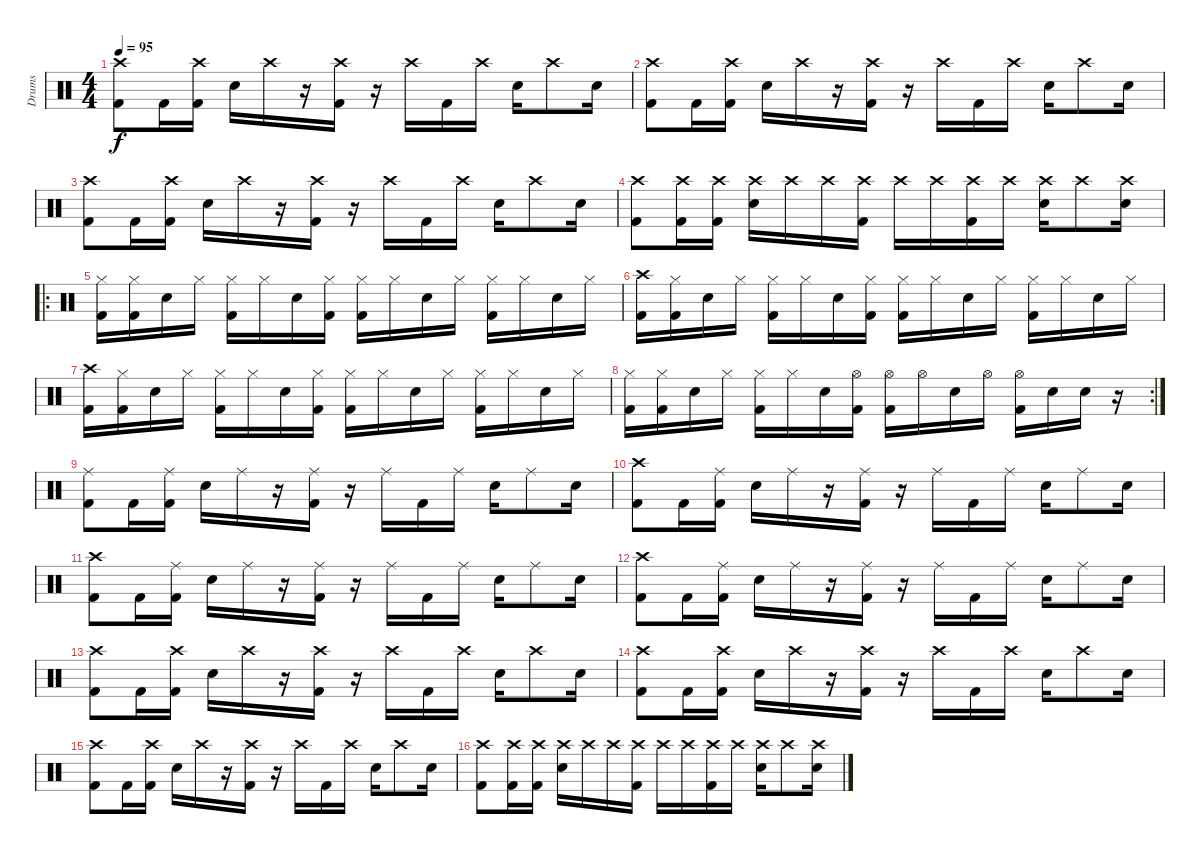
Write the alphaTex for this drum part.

\track ("Drums" "Drums") {instrument percussion}
\staff {score}
\articulation defaults
\ts (4 4)
\tempo 95
\clef neutral
\ks c
("Crash high (hit)" "Kick (hit) 2").8{dy f} "Kick (hit) 2".16 ("Crash high (hit)" "Kick (hit) 2").16 "Snare (hit) 2".16 "Crash high (hit)".16 r.16 ("Crash high (hit)" "Kick (hit) 2").16 r.16 "Crash high (hit)".16 "Kick (hit) 2".16 "Crash high (hit)".16 "Snare (hit) 2".16 "Crash high (hit)".8 "Snare (hit) 2".16 |
("Crash high (hit)" "Kick (hit) 2").8 "Kick (hit) 2".16 ("Crash high (hit)" "Kick (hit) 2").16 "Snare (hit) 2".16 "Crash high (hit)".16 r.16 ("Crash high (hit)" "Kick (hit) 2").16 r.16 "Crash high (hit)".16 "Kick (hit) 2".16 "Crash high (hit)".16 "Snare (hit) 2".16 "Crash high (hit)".8 "Snare (hit) 2".16 |
("Crash high (hit)" "Kick (hit) 2").8 "Kick (hit) 2".16 ("Crash high (hit)" "Kick (hit) 2").16 "Snare (hit) 2".16 "Crash high (hit)".16 r.16 ("Crash high (hit)" "Kick (hit) 2").16 r.16 "Crash high (hit)".16 "Kick (hit) 2".16 "Crash high (hit)".16 "Snare (hit) 2".16 "Crash high (hit)".8 "Snare (hit) 2".16 |
("Crash high (hit)" "Kick (hit) 2").8 ("Crash high (hit)" "Kick (hit) 2").16 ("Crash high (hit)" "Kick (hit) 2").16 ("Crash high (hit)" "Snare (hit) 2").16 "Crash high (hit)".16 "Crash high (hit)".16 ("Crash high (hit)" "Kick (hit) 2").16 "Crash high (hit)".16 "Crash high (hit)".16 ("Crash high (hit)" "Kick (hit) 2").16 "Crash high (hit)".16 ("Crash high (hit)" "Snare (hit) 2").16 "Crash high (hit)".8 ("Crash high (hit)" "Snare (hit) 2").16 |
\ro
("Hi-Hat (closed)" "Kick (hit) 2").16 ("Hi-Hat (closed)" "Kick (hit) 2").16 "Snare (hit) 2".16 "Hi-Hat (closed)".16 ("Hi-Hat (closed)" "Kick (hit) 2").16 "Hi-Hat (closed)".16 "Snare (hit) 2".16 ("Hi-Hat (closed)" "Kick (hit) 2").16 ("Hi-Hat (closed)" "Kick (hit) 2").16 "Hi-Hat (closed)".16 "Snare (hit) 2".16 "Hi-Hat (closed)".16 ("Hi-Hat (closed)" "Kick (hit) 2").16 "Hi-Hat (closed)".16 "Snare (hit) 2".16 "Hi-Hat (closed)".16 |
("Crash high (hit)" "Kick (hit) 2").16 ("Hi-Hat (closed)" "Kick (hit) 2").16 "Snare (hit) 2".16 "Hi-Hat (closed)".16 ("Hi-Hat (closed)" "Kick (hit) 2").16 "Hi-Hat (closed)".16 "Snare (hit) 2".16 ("Hi-Hat (closed)" "Kick (hit) 2").16 ("Hi-Hat (closed)" "Kick (hit) 2").16 "Hi-Hat (closed)".16 "Snare (hit) 2".16 "Hi-Hat (closed)".16 ("Hi-Hat (closed)" "Kick (hit) 2").16 "Hi-Hat (closed)".16 "Snare (hit) 2".16 "Hi-Hat (closed)".16 |
("Crash high (hit)" "Kick (hit) 2").16 ("Hi-Hat (closed)" "Kick (hit) 2").16 "Snare (hit) 2".16 "Hi-Hat (closed)".16 ("Hi-Hat (closed)" "Kick (hit) 2").16 "Hi-Hat (closed)".16 "Snare (hit) 2".16 ("Hi-Hat (closed)" "Kick (hit) 2").16 ("Hi-Hat (closed)" "Kick (hit) 2").16 "Hi-Hat (closed)".16 "Snare (hit) 2".16 "Hi-Hat (closed)".16 ("Hi-Hat (closed)" "Kick (hit) 2").16 "Hi-Hat (closed)".16 "Snare (hit) 2".16 "Hi-Hat (closed)".16 |
\rc 2
("Hi-Hat (closed)" "Kick (hit) 2").16 ("Hi-Hat (closed)" "Kick (hit) 2").16 "Snare (hit) 2".16 "Hi-Hat (closed)".16 ("Hi-Hat (closed)" "Kick (hit) 2").16 "Hi-Hat (closed)".16 "Snare (hit) 2".16 ("Hi-Hat (open)" "Kick (hit) 2").16 ("Hi-Hat (open)" "Kick (hit) 2").16 "Hi-Hat (open)".16 "Snare (hit) 2".16 "Hi-Hat (open)".16 ("Hi-Hat (open)" "Kick (hit) 2").16 "Snare (hit) 2".16 "Snare (hit) 2".16 r.16 |
("Ride (middle)" "Kick (hit) 2").8 "Kick (hit) 2".16 ("Ride (middle)" "Kick (hit) 2").16 "Snare (hit) 2".16 "Ride (middle)".16 r.16 ("Ride (middle)" "Kick (hit) 2").16 r.16 "Ride (middle)".16 "Kick (hit) 2".16 "Ride (middle)".16 "Snare (hit) 2".16 "Ride (middle)".8 "Snare (hit) 2".16 |
("Crash high (hit)" "Kick (hit) 2").8 "Kick (hit) 2".16 ("Ride (middle)" "Kick (hit) 2").16 "Snare (hit) 2".16 "Ride (middle)".16 r.16 ("Ride (middle)" "Kick (hit) 2").16 r.16 "Ride (middle)".16 "Kick (hit) 2".16 "Ride (middle)".16 "Snare (hit) 2".16 "Ride (middle)".8 "Snare (hit) 2".16 |
("Crash high (hit)" "Kick (hit) 2").8 "Kick (hit) 2".16 ("Ride (middle)" "Kick (hit) 2").16 "Snare (hit) 2".16 "Ride (middle)".16 r.16 ("Ride (middle)" "Kick (hit) 2").16 r.16 "Ride (middle)".16 "Kick (hit) 2".16 "Ride (middle)".16 "Snare (hit) 2".16 "Ride (middle)".8 "Snare (hit) 2".16 |
("Crash high (hit)" "Kick (hit) 2").8 "Kick (hit) 2".16 ("Ride (middle)" "Kick (hit) 2").16 "Snare (hit) 2".16 "Ride (middle)".16 r.16 ("Ride (middle)" "Kick (hit) 2").16 r.16 "Ride (middle)".16 "Kick (hit) 2".16 "Ride (middle)".16 "Snare (hit) 2".16 "Ride (middle)".8 "Snare (hit) 2".16 |
("Crash high (hit)" "Kick (hit) 2").8 "Kick (hit) 2".16 ("Crash high (hit)" "Kick (hit) 2").16 "Snare (hit) 2".16 "Crash high (hit)".16 r.16 ("Crash high (hit)" "Kick (hit) 2").16 r.16 "Crash high (hit)".16 "Kick (hit) 2".16 "Crash high (hit)".16 "Snare (hit) 2".16 "Crash high (hit)".8 "Snare (hit) 2".16 |
("Crash high (hit)" "Kick (hit) 2").8 "Kick (hit) 2".16 ("Crash high (hit)" "Kick (hit) 2").16 "Snare (hit) 2".16 "Crash high (hit)".16 r.16 ("Crash high (hit)" "Kick (hit) 2").16 r.16 "Crash high (hit)".16 "Kick (hit) 2".16 "Crash high (hit)".16 "Snare (hit) 2".16 "Crash high (hit)".8 "Snare (hit) 2".16 |
("Crash high (hit)" "Kick (hit) 2").8 "Kick (hit) 2".16 ("Crash high (hit)" "Kick (hit) 2").16 "Snare (hit) 2".16 "Crash high (hit)".16 r.16 ("Crash high (hit)" "Kick (hit) 2").16 r.16 "Crash high (hit)".16 "Kick (hit) 2".16 "Crash high (hit)".16 "Snare (hit) 2".16 "Crash high (hit)".8 "Snare (hit) 2".16 |
("Crash high (hit)" "Kick (hit) 2").8 ("Crash high (hit)" "Kick (hit) 2").16 ("Crash high (hit)" "Kick (hit) 2").16 ("Crash high (hit)" "Snare (hit) 2").16 "Crash high (hit)".16 "Crash high (hit)".16 ("Crash high (hit)" "Kick (hit) 2").16 "Crash high (hit)".16 "Crash high (hit)".16 ("Crash high (hit)" "Kick (hit) 2").16 "Crash high (hit)".16 ("Crash high (hit)" "Snare (hit) 2").16 "Crash high (hit)".8 ("Crash high (hit)" "Snare (hit) 2").16
